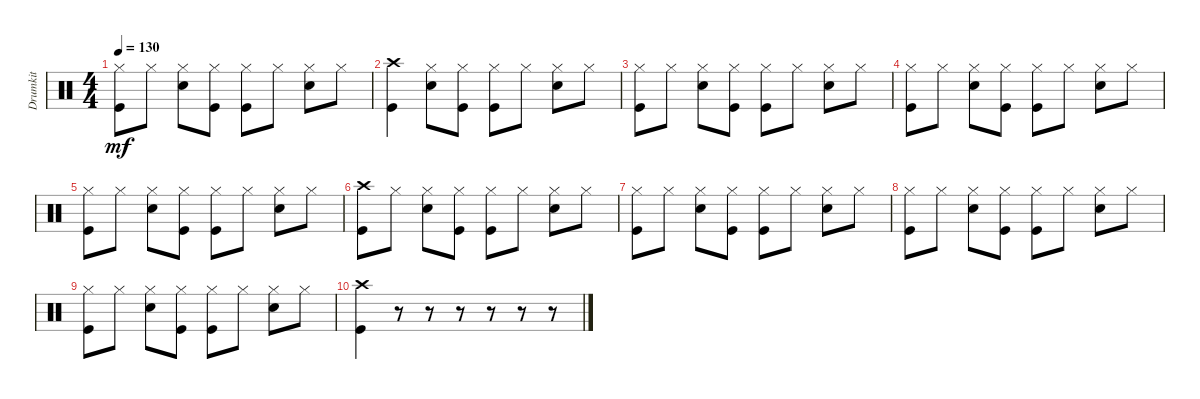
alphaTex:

\track ("Drumkit" "Drumkit") {instrument percussion}
\staff {score}
\articulation defaults
\ts (4 4)
\tempo 130
\clef neutral
\ks c
("Kick (hit)" "Hi-Hat (closed)").8{dy mf} "Hi-Hat (closed)".8 ("Snare (hit) 2" "Hi-Hat (closed)").8 ("Kick (hit)" "Hi-Hat (closed)").8 ("Kick (hit)" "Hi-Hat (closed)").8 "Hi-Hat (closed)".8 ("Snare (hit) 2" "Hi-Hat (closed)").8 "Hi-Hat (closed)".8 |
("Crash high (hit)" "Kick (hit)").4 ("Snare (hit) 2" "Hi-Hat (closed)").8 ("Kick (hit)" "Hi-Hat (closed)").8 ("Kick (hit)" "Hi-Hat (closed)").8 "Hi-Hat (closed)".8 ("Snare (hit) 2" "Hi-Hat (closed)").8 "Hi-Hat (closed)".8 |
("Kick (hit)" "Hi-Hat (closed)").8 "Hi-Hat (closed)".8 ("Snare (hit) 2" "Hi-Hat (closed)").8 ("Kick (hit)" "Hi-Hat (closed)").8 ("Kick (hit)" "Hi-Hat (closed)").8 "Hi-Hat (closed)".8 ("Snare (hit) 2" "Hi-Hat (closed)").8 "Hi-Hat (closed)".8 |
("Kick (hit)" "Hi-Hat (closed)").8 "Hi-Hat (closed)".8 ("Snare (hit) 2" "Hi-Hat (closed)").8 ("Kick (hit)" "Hi-Hat (closed)").8 ("Kick (hit)" "Hi-Hat (closed)").8 "Hi-Hat (closed)".8 ("Snare (hit) 2" "Hi-Hat (closed)").8 "Hi-Hat (closed)".8 |
("Kick (hit)" "Hi-Hat (closed)").8 "Hi-Hat (closed)".8 ("Snare (hit) 2" "Hi-Hat (closed)").8 ("Kick (hit)" "Hi-Hat (closed)").8 ("Kick (hit)" "Hi-Hat (closed)").8 "Hi-Hat (closed)".8 ("Snare (hit) 2" "Hi-Hat (closed)").8 "Hi-Hat (closed)".8 |
("Kick (hit)" "Crash high (hit)").8 "Hi-Hat (closed)".8 ("Snare (hit) 2" "Hi-Hat (closed)").8 ("Kick (hit)" "Hi-Hat (closed)").8 ("Kick (hit)" "Hi-Hat (closed)").8 "Hi-Hat (closed)".8 ("Snare (hit) 2" "Hi-Hat (closed)").8 "Hi-Hat (closed)".8 |
("Kick (hit)" "Hi-Hat (closed)").8 "Hi-Hat (closed)".8 ("Snare (hit) 2" "Hi-Hat (closed)").8 ("Kick (hit)" "Hi-Hat (closed)").8 ("Kick (hit)" "Hi-Hat (closed)").8 "Hi-Hat (closed)".8 ("Snare (hit) 2" "Hi-Hat (closed)").8 "Hi-Hat (closed)".8 |
("Kick (hit)" "Hi-Hat (closed)").8 "Hi-Hat (closed)".8 ("Snare (hit) 2" "Hi-Hat (closed)").8 ("Kick (hit)" "Hi-Hat (closed)").8 ("Kick (hit)" "Hi-Hat (closed)").8 "Hi-Hat (closed)".8 ("Snare (hit) 2" "Hi-Hat (closed)").8 "Hi-Hat (closed)".8 |
("Kick (hit)" "Hi-Hat (closed)").8 "Hi-Hat (closed)".8 ("Snare (hit) 2" "Hi-Hat (closed)").8 ("Kick (hit)" "Hi-Hat (closed)").8 ("Kick (hit)" "Hi-Hat (closed)").8 "Hi-Hat (closed)".8 ("Snare (hit) 2" "Hi-Hat (closed)").8 "Hi-Hat (closed)".8 |
("Crash high (hit)" "Kick (hit)").4 r.8 r.8 r.8 r.8 r.8 r.8
